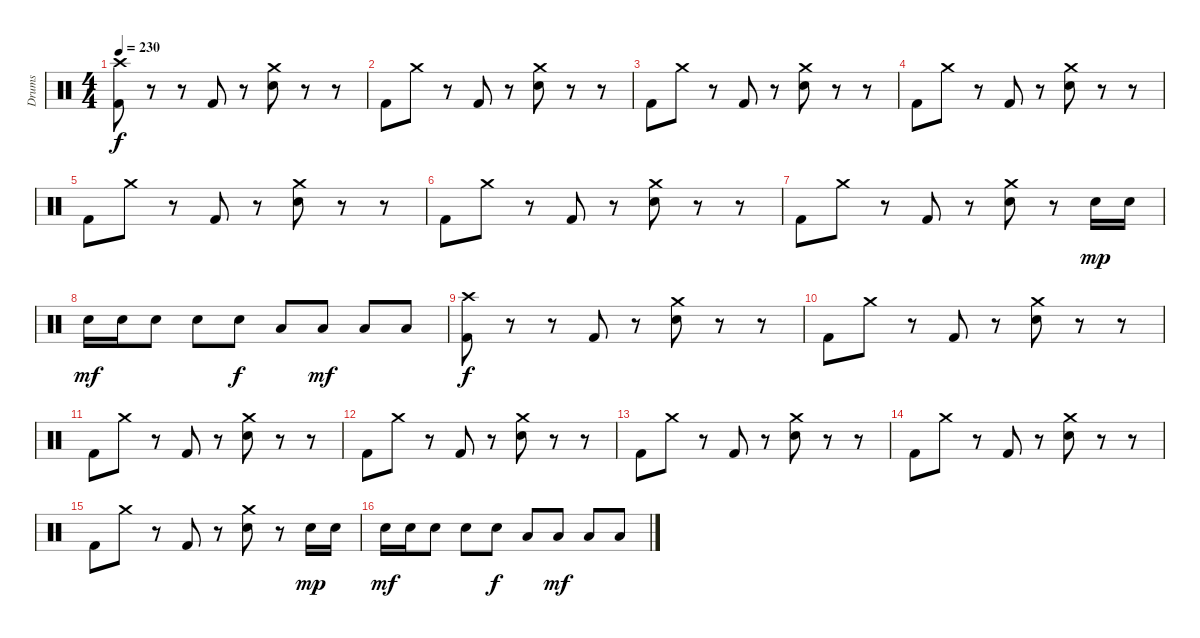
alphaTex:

\track ("Drums" "Drums") {instrument percussion}
\staff {score}
\articulation defaults
\ts (4 4)
\tempo 230
\clef neutral
\ks c
("Kick (hit) 2" "Crash high (hit)").8{dy f} r.8 r.8 "Kick (hit) 2".8 r.8 ("Electric Snare (hit)" "Crash medium (hit)").8 r.8 r.8 |
"Kick (hit) 2".8 "Crash medium (hit)".8 r.8 "Kick (hit) 2".8 r.8 ("Electric Snare (hit)" "Crash medium (hit)").8 r.8 r.8 |
"Kick (hit) 2".8 "Crash medium (hit)".8 r.8 "Kick (hit) 2".8 r.8 ("Electric Snare (hit)" "Crash medium (hit)").8 r.8 r.8 |
"Kick (hit) 2".8 "Crash medium (hit)".8 r.8 "Kick (hit) 2".8 r.8 ("Electric Snare (hit)" "Crash medium (hit)").8 r.8 r.8 |
"Kick (hit) 2".8 "Crash medium (hit)".8 r.8 "Kick (hit) 2".8 r.8 ("Electric Snare (hit)" "Crash medium (hit)").8 r.8 r.8 |
"Kick (hit) 2".8 "Crash medium (hit)".8 r.8 "Kick (hit) 2".8 r.8 ("Electric Snare (hit)" "Crash medium (hit)").8 r.8 r.8 |
"Kick (hit) 2".8 "Crash medium (hit)".8 r.8 "Kick (hit) 2".8 r.8 ("Electric Snare (hit)" "Crash medium (hit)").8 r.8 "Electric Snare (hit)".16{dy mp} "Electric Snare (hit)".16 |
"Electric Snare (hit)".16{dy mf} "Electric Snare (hit)".16 "Electric Snare (hit)".8 "Electric Snare (hit)".8 "Electric Snare (hit)".8{dy f} "Low Tom (hit)".8 "Low Tom (hit)".8{dy mf} "Low Tom (hit)".8 "Low Tom (hit)".8 |
("Kick (hit) 2" "Crash high (hit)").8{dy f} r.8 r.8 "Kick (hit) 2".8 r.8 ("Electric Snare (hit)" "Crash medium (hit)").8 r.8 r.8 |
"Kick (hit) 2".8 "Crash medium (hit)".8 r.8 "Kick (hit) 2".8 r.8 ("Electric Snare (hit)" "Crash medium (hit)").8 r.8 r.8 |
"Kick (hit) 2".8 "Crash medium (hit)".8 r.8 "Kick (hit) 2".8 r.8 ("Electric Snare (hit)" "Crash medium (hit)").8 r.8 r.8 |
"Kick (hit) 2".8 "Crash medium (hit)".8 r.8 "Kick (hit) 2".8 r.8 ("Electric Snare (hit)" "Crash medium (hit)").8 r.8 r.8 |
"Kick (hit) 2".8 "Crash medium (hit)".8 r.8 "Kick (hit) 2".8 r.8 ("Electric Snare (hit)" "Crash medium (hit)").8 r.8 r.8 |
"Kick (hit) 2".8 "Crash medium (hit)".8 r.8 "Kick (hit) 2".8 r.8 ("Electric Snare (hit)" "Crash medium (hit)").8 r.8 r.8 |
"Kick (hit) 2".8 "Crash medium (hit)".8 r.8 "Kick (hit) 2".8 r.8 ("Electric Snare (hit)" "Crash medium (hit)").8 r.8 "Electric Snare (hit)".16{dy mp} "Electric Snare (hit)".16 |
"Electric Snare (hit)".16{dy mf} "Electric Snare (hit)".16 "Electric Snare (hit)".8 "Electric Snare (hit)".8 "Electric Snare (hit)".8{dy f} "Low Tom (hit)".8 "Low Tom (hit)".8{dy mf} "Low Tom (hit)".8 "Low Tom (hit)".8
